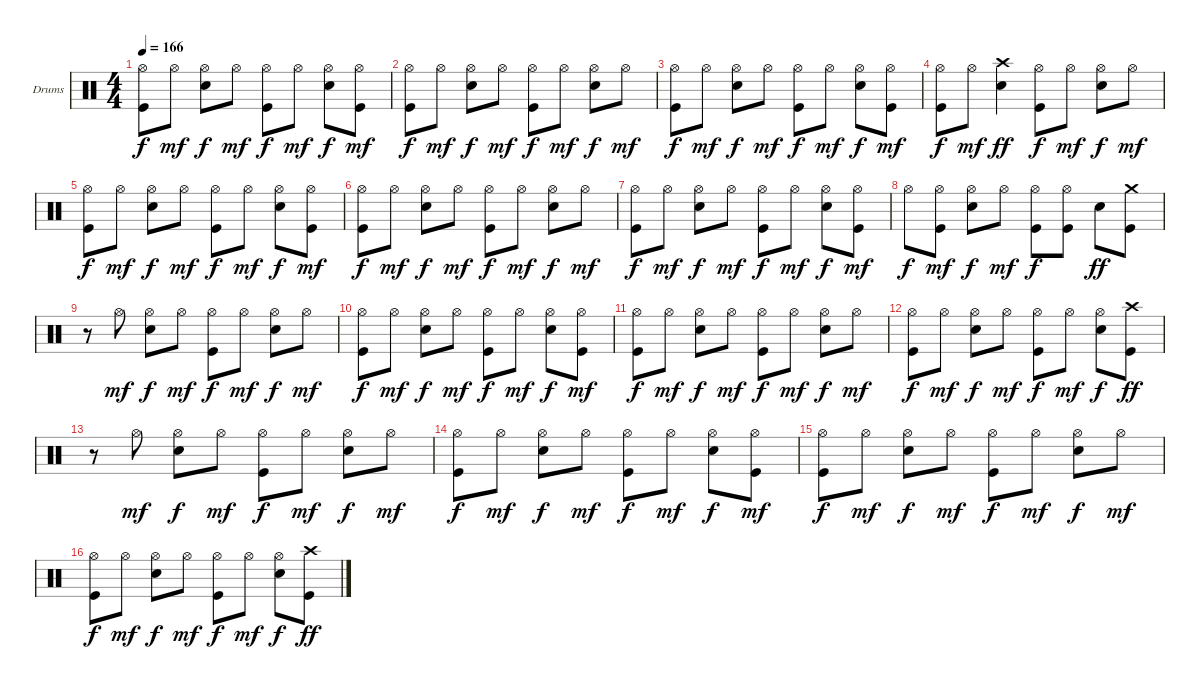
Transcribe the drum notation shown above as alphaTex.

\defaultSystemsLayout 4
\bracketExtendMode groupsimilarinstruments
\firstSystemTrackNameOrientation horizontal
\otherSystemsTrackNameOrientation horizontal
\track ("Lars Ulrich" "Drums") {instrument percussion}
\staff {score}
\articulation defaults
\ts (4 4)
\tempo 166
\clef neutral
\scale
0.333333
\ks c
("Hi-Hat (open)" "Kick (hit)").8{dy f} "Hi-Hat (open)".8{dy mf} ("Hi-Hat (open)" "Snare (hit) 2").8{dy f} "Hi-Hat (open)".8{dy mf} ("Hi-Hat (open)" "Kick (hit)").8{dy f} "Hi-Hat (open)".8{dy mf} ("Hi-Hat (open)" "Snare (hit) 2").8{dy f} ("Hi-Hat (open)" "Kick (hit)").8{dy mf} |
\scale
0.333333 ("Hi-Hat (open)" "Kick (hit)").8{dy f} "Hi-Hat (open)".8{dy mf} ("Hi-Hat (open)" "Snare (hit) 2").8{dy f} "Hi-Hat (open)".8{dy mf} ("Hi-Hat (open)" "Kick (hit)").8{dy f} "Hi-Hat (open)".8{dy mf} ("Hi-Hat (open)" "Snare (hit) 2").8{dy f} "Hi-Hat (open)".8{dy mf} |
\scale
0.333333 ("Hi-Hat (open)" "Kick (hit)").8{dy f} "Hi-Hat (open)".8{dy mf} ("Hi-Hat (open)" "Snare (hit) 2").8{dy f} "Hi-Hat (open)".8{dy mf} ("Hi-Hat (open)" "Kick (hit)").8{dy f} "Hi-Hat (open)".8{dy mf} ("Hi-Hat (open)" "Snare (hit) 2").8{dy f} ("Hi-Hat (open)" "Kick (hit)").8{dy mf} |
\scale
0.333333 ("Hi-Hat (open)" "Kick (hit)").8{dy f} "Hi-Hat (open)".8{dy mf} ("Crash high (hit)" "Snare (hit) 2").4{dy ff} ("Hi-Hat (open)" "Kick (hit)").8{dy f} "Hi-Hat (open)".8{dy mf} ("Hi-Hat (open)" "Snare (hit) 2").8{dy f} "Hi-Hat (open)".8{dy mf} |
\scale
0.333333 ("Hi-Hat (open)" "Kick (hit)").8{dy f} "Hi-Hat (open)".8{dy mf} ("Hi-Hat (open)" "Snare (hit) 2").8{dy f} "Hi-Hat (open)".8{dy mf} ("Hi-Hat (open)" "Kick (hit)").8{dy f} "Hi-Hat (open)".8{dy mf} ("Hi-Hat (open)" "Snare (hit) 2").8{dy f} ("Hi-Hat (open)" "Kick (hit)").8{dy mf} |
\scale
0.333333 ("Hi-Hat (open)" "Kick (hit)").8{dy f} "Hi-Hat (open)".8{dy mf} ("Hi-Hat (open)" "Snare (hit) 2").8{dy f} "Hi-Hat (open)".8{dy mf} ("Hi-Hat (open)" "Kick (hit)").8{dy f} "Hi-Hat (open)".8{dy mf} ("Hi-Hat (open)" "Snare (hit) 2").8{dy f} "Hi-Hat (open)".8{dy mf} |
\scale
0.333333 ("Hi-Hat (open)" "Kick (hit)").8{dy f} "Hi-Hat (open)".8{dy mf} ("Hi-Hat (open)" "Snare (hit) 2").8{dy f} "Hi-Hat (open)".8{dy mf} ("Hi-Hat (open)" "Kick (hit)").8{dy f} "Hi-Hat (open)".8{dy mf} ("Hi-Hat (open)" "Snare (hit) 2").8{dy f} ("Hi-Hat (open)" "Kick (hit)").8{dy mf} |
\scale
0.333333 "Hi-Hat (open)".8{dy f} ("Hi-Hat (open)" "Kick (hit)").8{dy mf} ("Hi-Hat (open)" "Snare (hit) 2").8{dy f} "Hi-Hat (open)".8{dy mf} ("Hi-Hat (open)" "Kick (hit)").8{dy f} ("Hi-Hat (open)" "Kick (hit)").8 "Snare (hit) 2".8{dy ff} ("Crash medium (hit)" "Kick (hit)").8 |
\scale
0.333333 r.8 "Hi-Hat (open)".8{dy mf} ("Hi-Hat (open)" "Snare (hit) 2").8{dy f} "Hi-Hat (open)".8{dy mf} ("Hi-Hat (open)" "Kick (hit)").8{dy f} "Hi-Hat (open)".8{dy mf} ("Hi-Hat (open)" "Snare (hit) 2").8{dy f} "Hi-Hat (open)".8{dy mf} |
\scale
0.333333 ("Hi-Hat (open)" "Kick (hit)").8{dy f} "Hi-Hat (open)".8{dy mf} ("Hi-Hat (open)" "Snare (hit) 2").8{dy f} "Hi-Hat (open)".8{dy mf} ("Hi-Hat (open)" "Kick (hit)").8{dy f} "Hi-Hat (open)".8{dy mf} ("Hi-Hat (open)" "Snare (hit) 2").8{dy f} ("Hi-Hat (open)" "Kick (hit)").8{dy mf} |
\scale
0.333333 ("Hi-Hat (open)" "Kick (hit)").8{dy f} "Hi-Hat (open)".8{dy mf} ("Hi-Hat (open)" "Snare (hit) 2").8{dy f} "Hi-Hat (open)".8{dy mf} ("Hi-Hat (open)" "Kick (hit)").8{dy f} "Hi-Hat (open)".8{dy mf} ("Hi-Hat (open)" "Snare (hit) 2").8{dy f} "Hi-Hat (open)".8{dy mf} |
\scale
0.333333 ("Hi-Hat (open)" "Kick (hit)").8{dy f} "Hi-Hat (open)".8{dy mf} ("Hi-Hat (open)" "Snare (hit) 2").8{dy f} "Hi-Hat (open)".8{dy mf} ("Hi-Hat (open)" "Kick (hit)").8{dy f} "Hi-Hat (open)".8{dy mf} ("Hi-Hat (open)" "Snare (hit) 2").8{dy f} ("Crash high (hit)" "Kick (hit)").8{dy ff} |
\scale
0.333333 r.8 "Hi-Hat (open)".8{dy mf} ("Hi-Hat (open)" "Snare (hit) 2").8{dy f} "Hi-Hat (open)".8{dy mf} ("Hi-Hat (open)" "Kick (hit)").8{dy f} "Hi-Hat (open)".8{dy mf} ("Hi-Hat (open)" "Snare (hit) 2").8{dy f} "Hi-Hat (open)".8{dy mf} |
\scale
0.333333 ("Hi-Hat (open)" "Kick (hit)").8{dy f} "Hi-Hat (open)".8{dy mf} ("Hi-Hat (open)" "Snare (hit) 2").8{dy f} "Hi-Hat (open)".8{dy mf} ("Hi-Hat (open)" "Kick (hit)").8{dy f} "Hi-Hat (open)".8{dy mf} ("Hi-Hat (open)" "Snare (hit) 2").8{dy f} ("Hi-Hat (open)" "Kick (hit)").8{dy mf} |
\scale
0.333333 ("Hi-Hat (open)" "Kick (hit)").8{dy f} "Hi-Hat (open)".8{dy mf} ("Hi-Hat (open)" "Snare (hit) 2").8{dy f} "Hi-Hat (open)".8{dy mf} ("Hi-Hat (open)" "Kick (hit)").8{dy f} "Hi-Hat (open)".8{dy mf} ("Hi-Hat (open)" "Snare (hit) 2").8{dy f} "Hi-Hat (open)".8{dy mf} |
\scale
0.333333 ("Hi-Hat (open)" "Kick (hit)").8{dy f} "Hi-Hat (open)".8{dy mf} ("Hi-Hat (open)" "Snare (hit) 2").8{dy f} "Hi-Hat (open)".8{dy mf} ("Hi-Hat (open)" "Kick (hit)").8{dy f} "Hi-Hat (open)".8{dy mf} ("Hi-Hat (open)" "Snare (hit) 2").8{dy f} ("Crash high (hit)" "Kick (hit)").8{dy ff}
